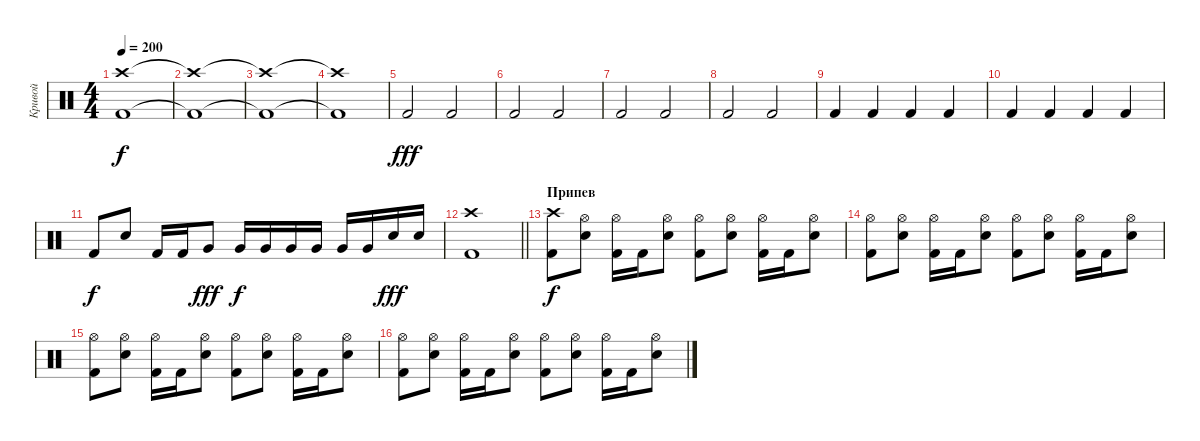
\track ("Кривой" "Кривой") {instrument percussion}
\staff {score}
\articulation defaults
\ts (4 4)
\tempo 200
\clef neutral
\ks c
("Kick (hit) 2"{t} "Crash high (hit)"{t}).1{dy f} |
("Kick (hit) 2"{t} "Crash high (hit)"{t}).1 |
("Kick (hit) 2"{t} "Crash high (hit)"{t}).1 |
("Kick (hit) 2"{t} "Crash high (hit)"{t}).1 |
"Kick (hit) 2".2{dy fff} "Kick (hit) 2".2 |
"Kick (hit) 2".2 "Kick (hit) 2".2 |
"Kick (hit) 2".2 "Kick (hit) 2".2 |
"Kick (hit) 2".2 "Kick (hit) 2".2 |
"Kick (hit) 2".4 "Kick (hit) 2".4 "Kick (hit) 2".4 "Kick (hit) 2".4 |
"Kick (hit) 2".4 "Kick (hit) 2".4 "Kick (hit) 2".4 "Kick (hit) 2".4 |
"Kick (hit) 2".8{dy f} "Electric Snare (hit)".8 "Kick (hit) 2".16 "Kick (hit) 2".16 "Very Low Tom (hit)".8{dy fff} "Very Low Tom (hit)".16{dy f} "Very Low Tom (hit)".16 "Very Low Tom (hit)".16 "Very Low Tom (hit)".16 "Very Low Tom (hit)".16 "Very Low Tom (hit)".16 "Electric Snare (hit)".16{dy fff} "Electric Snare (hit)".16 |
\barLineRight lightlight
("Kick (hit) 2" "Crash high (hit)").1 |
\section ("" "Припев")
("Kick (hit) 2" "Crash high (hit)").8{dy f} ("Electric Snare (hit)" "Hi-Hat (open)").8 ("Kick (hit) 2" "Hi-Hat (open)").16 "Kick (hit) 2".16 ("Electric Snare (hit)" "Hi-Hat (open)").8 ("Kick (hit) 2" "Hi-Hat (open)").8 ("Electric Snare (hit)" "Hi-Hat (open)").8 ("Kick (hit) 2" "Hi-Hat (open)").16 "Kick (hit) 2".16 ("Electric Snare (hit)" "Hi-Hat (open)").8 |
("Kick (hit) 2" "Hi-Hat (open)").8 ("Electric Snare (hit)" "Hi-Hat (open)").8 ("Kick (hit) 2" "Hi-Hat (open)").16 "Kick (hit) 2".16 ("Electric Snare (hit)" "Hi-Hat (open)").8 ("Kick (hit) 2" "Hi-Hat (open)").8 ("Electric Snare (hit)" "Hi-Hat (open)").8 ("Kick (hit) 2" "Hi-Hat (open)").16 "Kick (hit) 2".16 ("Electric Snare (hit)" "Hi-Hat (open)").8 |
("Kick (hit) 2" "Hi-Hat (open)").8 ("Electric Snare (hit)" "Hi-Hat (open)").8 ("Kick (hit) 2" "Hi-Hat (open)").16 "Kick (hit) 2".16 ("Electric Snare (hit)" "Hi-Hat (open)").8 ("Kick (hit) 2" "Hi-Hat (open)").8 ("Electric Snare (hit)" "Hi-Hat (open)").8 ("Kick (hit) 2" "Hi-Hat (open)").16 "Kick (hit) 2".16 ("Electric Snare (hit)" "Hi-Hat (open)").8 |
("Kick (hit) 2" "Hi-Hat (open)").8 ("Electric Snare (hit)" "Hi-Hat (open)").8 ("Kick (hit) 2" "Hi-Hat (open)").16 "Kick (hit) 2".16 ("Electric Snare (hit)" "Hi-Hat (open)").8 ("Kick (hit) 2" "Hi-Hat (open)").8 ("Electric Snare (hit)" "Hi-Hat (open)").8 ("Kick (hit) 2" "Hi-Hat (open)").16 "Kick (hit) 2".16 ("Electric Snare (hit)" "Hi-Hat (open)").8
